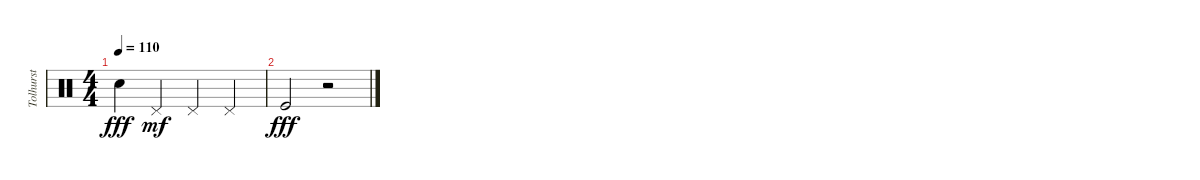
\track ("Tolhurst" "Tolhurst") {instrument percussion}
\staff {score}
\articulation defaults
\ts (4 4)
\tempo 110
\clef neutral
\ks c "Electric Snare (hit)".4{dy fff} "Pedal Hi-Hat (hit)".4{dy mf} "Pedal Hi-Hat (hit)".4 "Pedal Hi-Hat (hit)".4
|
"Kick (hit)".2{dy fff} r.2
